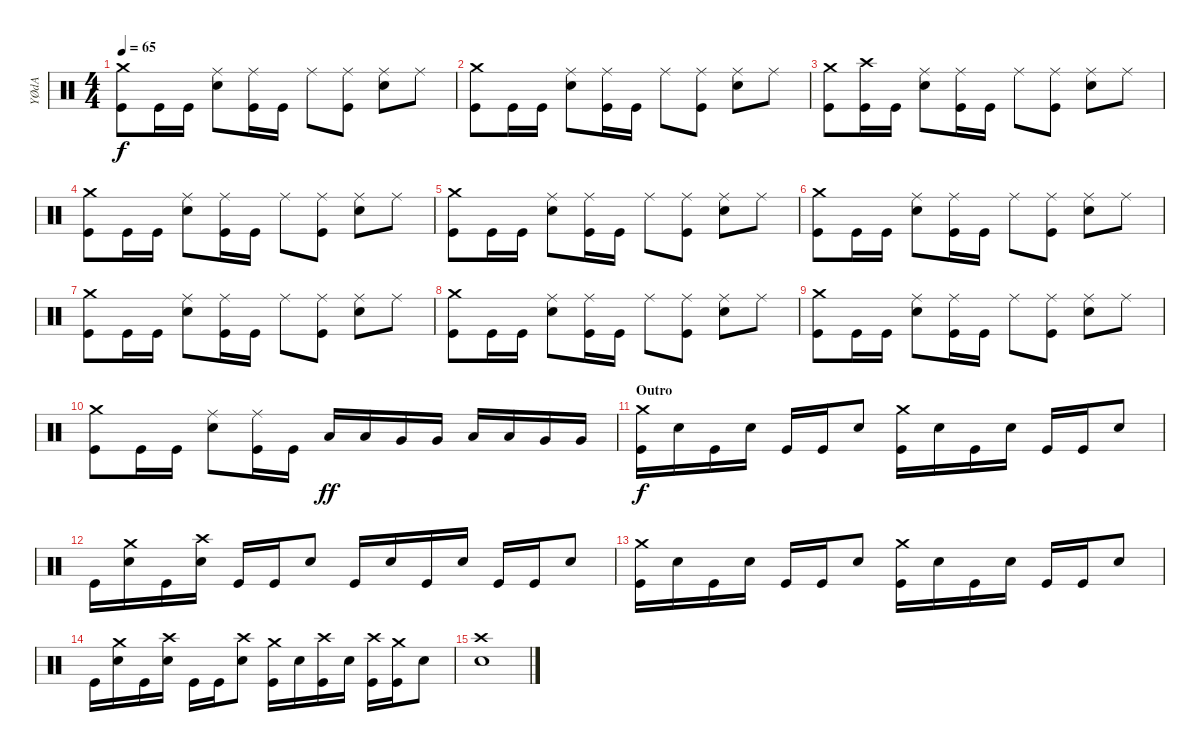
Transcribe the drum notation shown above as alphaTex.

\track ("YØdA" "YØdA") {instrument percussion}
\staff {score}
\articulation defaults
\ts (4 4)
\tempo 65
\clef neutral
\ks c
("Crash medium (hit)" "Kick (hit)").8{dy f} "Kick (hit)".16 "Kick (hit)".16 ("Ride (middle)" "Electric Snare (hit)").8 ("Ride (middle)" "Kick (hit)").16 "Kick (hit)".16 "Ride (middle)".8 ("Ride (middle)" "Kick (hit)").8 ("Ride (middle)" "Electric Snare (hit)").8 "Ride (middle)".8 |
("Crash medium (hit)" "Kick (hit)").8 "Kick (hit)".16 "Kick (hit)".16 ("Ride (middle)" "Electric Snare (hit)").8 ("Ride (middle)" "Kick (hit)").16 "Kick (hit)".16 "Ride (middle)".8 ("Ride (middle)" "Kick (hit)").8 ("Ride (middle)" "Electric Snare (hit)").8 "Ride (middle)".8 |
("Crash medium (hit)" "Kick (hit)").8 ("Crash high (hit)" "Kick (hit)").16 "Kick (hit)".16 ("Ride (middle)" "Electric Snare (hit)").8 ("Ride (middle)" "Kick (hit)").16 "Kick (hit)".16 "Ride (middle)".8 ("Ride (middle)" "Kick (hit)").8 ("Ride (middle)" "Electric Snare (hit)").8 "Ride (middle)".8 |
("Crash medium (hit)" "Kick (hit)").8 "Kick (hit)".16 "Kick (hit)".16 ("Ride (middle)" "Electric Snare (hit)").8 ("Ride (middle)" "Kick (hit)").16 "Kick (hit)".16 "Ride (middle)".8 ("Ride (middle)" "Kick (hit)").8 ("Ride (middle)" "Electric Snare (hit)").8 "Ride (middle)".8 |
("Crash medium (hit)" "Kick (hit)").8 "Kick (hit)".16 "Kick (hit)".16 ("Ride (middle)" "Electric Snare (hit)").8 ("Ride (middle)" "Kick (hit)").16 "Kick (hit)".16 "Ride (middle)".8 ("Ride (middle)" "Kick (hit)").8 ("Ride (middle)" "Electric Snare (hit)").8 "Ride (middle)".8 |
("Crash medium (hit)" "Kick (hit)").8 "Kick (hit)".16 "Kick (hit)".16 ("Ride (middle)" "Electric Snare (hit)").8 ("Ride (middle)" "Kick (hit)").16 "Kick (hit)".16 "Ride (middle)".8 ("Ride (middle)" "Kick (hit)").8 ("Ride (middle)" "Electric Snare (hit)").8 "Ride (middle)".8 |
("Crash medium (hit)" "Kick (hit)").8 "Kick (hit)".16 "Kick (hit)".16 ("Ride (middle)" "Electric Snare (hit)").8 ("Ride (middle)" "Kick (hit)").16 "Kick (hit)".16 "Ride (middle)".8 ("Ride (middle)" "Kick (hit)").8 ("Ride (middle)" "Electric Snare (hit)").8 "Ride (middle)".8 |
("Crash medium (hit)" "Kick (hit)").8 "Kick (hit)".16 "Kick (hit)".16 ("Ride (middle)" "Electric Snare (hit)").8 ("Ride (middle)" "Kick (hit)").16 "Kick (hit)".16 "Ride (middle)".8 ("Ride (middle)" "Kick (hit)").8 ("Ride (middle)" "Electric Snare (hit)").8 "Ride (middle)".8 |
("Crash medium (hit)" "Kick (hit)").8 "Kick (hit)".16 "Kick (hit)".16 ("Ride (middle)" "Electric Snare (hit)").8 ("Ride (middle)" "Kick (hit)").16 "Kick (hit)".16 "Ride (middle)".8 ("Ride (middle)" "Kick (hit)").8 ("Ride (middle)" "Electric Snare (hit)").8 "Ride (middle)".8 |
("Crash medium (hit)" "Kick (hit)").8 "Kick (hit)".16 "Kick (hit)".16 ("Ride (middle)" "Electric Snare (hit)").8 ("Ride (middle)" "Kick (hit)").16 "Kick (hit)".16 "Low Tom (hit)".16{dy ff} "Low Tom (hit)".16 "Very Low Tom (hit)".16 "Very Low Tom (hit)".16 "Low Tom (hit)".16 "Low Tom (hit)".16 "Very Low Tom (hit)".16 "Very Low Tom (hit)".16 |
\section ("" "Outro")
("Crash medium (hit)" "Kick (hit)").16{dy f} "Electric Snare (hit)".16 "Kick (hit)".16 "Electric Snare (hit)".16 "Kick (hit)".16 "Kick (hit)".16 "Electric Snare (hit)".8 ("Crash medium (hit)" "Kick (hit)").16 "Electric Snare (hit)".16 "Kick (hit)".16 "Electric Snare (hit)".16 "Kick (hit)".16 "Kick (hit)".16 "Electric Snare (hit)".8 |
"Kick (hit)".16 ("Crash medium (hit)" "Electric Snare (hit)").16 "Kick (hit)".16 ("Crash high (hit)" "Electric Snare (hit)").16 "Kick (hit)".16 "Kick (hit)".16 "Electric Snare (hit)".8 "Kick (hit)".16 "Electric Snare (hit)".16 "Kick (hit)".16 "Electric Snare (hit)".16 "Kick (hit)".16 "Kick (hit)".16 "Electric Snare (hit)".8 |
("Crash medium (hit)" "Kick (hit)").16 "Electric Snare (hit)".16 "Kick (hit)".16 "Electric Snare (hit)".16 "Kick (hit)".16 "Kick (hit)".16 "Electric Snare (hit)".8 ("Crash medium (hit)" "Kick (hit)").16 "Electric Snare (hit)".16 "Kick (hit)".16 "Electric Snare (hit)".16 "Kick (hit)".16 "Kick (hit)".16 "Electric Snare (hit)".8 |
"Kick (hit)".16 ("Crash medium (hit)" "Electric Snare (hit)").16 "Kick (hit)".16 ("Crash high (hit)" "Electric Snare (hit)").16 "Kick (hit)".16 "Kick (hit)".16 ("Crash high (hit)" "Electric Snare (hit)").8 ("Crash medium (hit)" "Kick (hit)").16 "Electric Snare (hit)".16 ("Crash high (hit)" "Kick (hit)").16 "Electric Snare (hit)".16 ("Crash high (hit)" "Kick (hit)").16 ("Crash medium (hit)" "Kick (hit)").16 "Electric Snare (hit)".8 |
("Crash high (hit)" "Electric Snare (hit)").1
